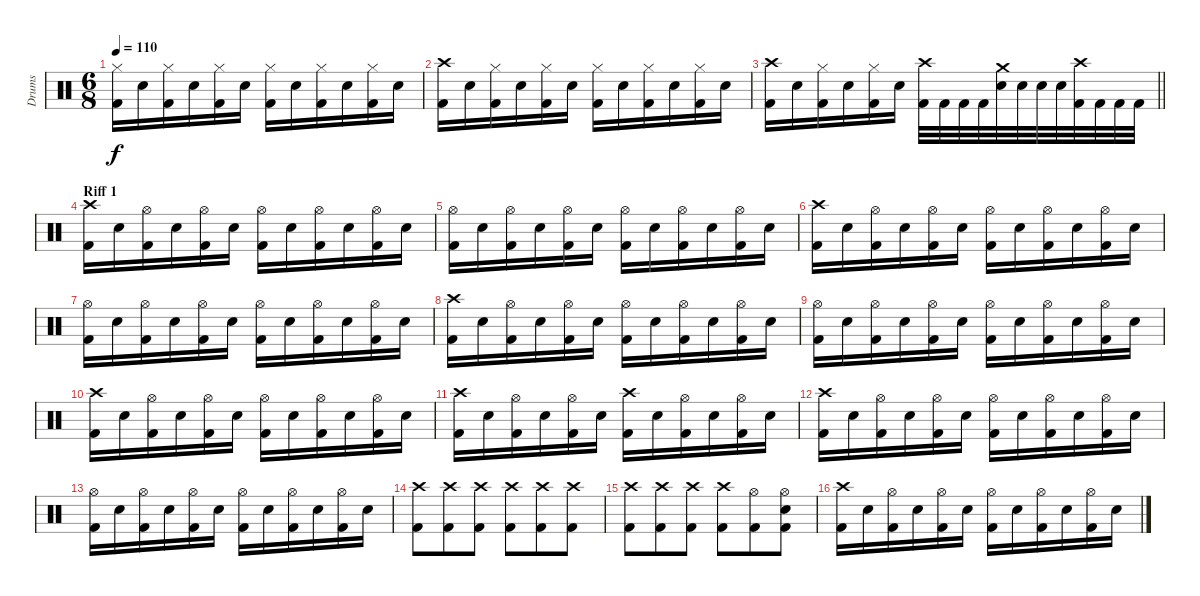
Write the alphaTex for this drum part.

\track ("Drums" "Drums") {instrument percussion}
\staff {score}
\articulation defaults
\ts (6 8)
\tempo 110
\clef neutral
\ks c
("Hi-Hat (closed)" "Kick (hit) 2").16{dy f} "Electric Snare (hit)".16 ("Hi-Hat (closed)" "Kick (hit) 2").16 "Electric Snare (hit)".16 ("Hi-Hat (closed)" "Kick (hit) 2").16 "Electric Snare (hit)".16 ("Hi-Hat (closed)" "Kick (hit) 2").16 "Electric Snare (hit)".16 ("Hi-Hat (closed)" "Kick (hit) 2").16 "Electric Snare (hit)".16 ("Hi-Hat (closed)" "Kick (hit) 2").16 "Electric Snare (hit)".16 |
("Crash high (hit)" "Kick (hit) 2").16 "Electric Snare (hit)".16 ("Hi-Hat (closed)" "Kick (hit) 2").16 "Electric Snare (hit)".16 ("Hi-Hat (closed)" "Kick (hit) 2").16 "Electric Snare (hit)".16 ("Hi-Hat (closed)" "Kick (hit) 2").16 "Electric Snare (hit)".16 ("Hi-Hat (closed)" "Kick (hit) 2").16 "Electric Snare (hit)".16 ("Hi-Hat (closed)" "Kick (hit) 2").16 "Electric Snare (hit)".16 |
\barLineRight lightlight
("Crash high (hit)" "Kick (hit) 2").16 "Electric Snare (hit)".16 ("Hi-Hat (closed)" "Kick (hit) 2").16 "Electric Snare (hit)".16 ("Hi-Hat (closed)" "Kick (hit) 2").16 "Electric Snare (hit)".16 ("Crash high (hit)" "Kick (hit) 2").32 "Kick (hit) 2".32 "Kick (hit) 2".32 "Kick (hit) 2".32 ("Crash medium (hit)" "Electric Snare (hit)").32 "Electric Snare (hit)".32 "Electric Snare (hit)".32 "Electric Snare (hit)".32 ("Crash high (hit)" "Kick (hit) 2").32 "Kick (hit) 2".32 "Kick (hit) 2".32 "Kick (hit) 2".32 |
\section ("" "Riff 1")
("Crash high (hit)" "Kick (hit) 2").16 "Electric Snare (hit)".16 ("Hi-Hat (open)" "Kick (hit) 2").16 "Electric Snare (hit)".16 ("Hi-Hat (open)" "Kick (hit) 2").16 "Electric Snare (hit)".16 ("Hi-Hat (open)" "Kick (hit) 2").16 "Electric Snare (hit)".16 ("Hi-Hat (open)" "Kick (hit) 2").16 "Electric Snare (hit)".16 ("Hi-Hat (open)" "Kick (hit) 2").16 "Electric Snare (hit)".16 |
("Hi-Hat (open)" "Kick (hit) 2").16 "Electric Snare (hit)".16 ("Hi-Hat (open)" "Kick (hit) 2").16 "Electric Snare (hit)".16 ("Hi-Hat (open)" "Kick (hit) 2").16 "Electric Snare (hit)".16 ("Hi-Hat (open)" "Kick (hit) 2").16 "Electric Snare (hit)".16 ("Hi-Hat (open)" "Kick (hit) 2").16 "Electric Snare (hit)".16 ("Hi-Hat (open)" "Kick (hit) 2").16 "Electric Snare (hit)".16 |
("Crash high (hit)" "Kick (hit) 2").16 "Electric Snare (hit)".16 ("Hi-Hat (open)" "Kick (hit) 2").16 "Electric Snare (hit)".16 ("Hi-Hat (open)" "Kick (hit) 2").16 "Electric Snare (hit)".16 ("Hi-Hat (open)" "Kick (hit) 2").16 "Electric Snare (hit)".16 ("Hi-Hat (open)" "Kick (hit) 2").16 "Electric Snare (hit)".16 ("Hi-Hat (open)" "Kick (hit) 2").16 "Electric Snare (hit)".16 |
("Hi-Hat (open)" "Kick (hit) 2").16 "Electric Snare (hit)".16 ("Hi-Hat (open)" "Kick (hit) 2").16 "Electric Snare (hit)".16 ("Hi-Hat (open)" "Kick (hit) 2").16 "Electric Snare (hit)".16 ("Hi-Hat (open)" "Kick (hit) 2").16 "Electric Snare (hit)".16 ("Hi-Hat (open)" "Kick (hit) 2").16 "Electric Snare (hit)".16 ("Hi-Hat (open)" "Kick (hit) 2").16 "Electric Snare (hit)".16 |
("Crash high (hit)" "Kick (hit) 2").16 "Electric Snare (hit)".16 ("Hi-Hat (open)" "Kick (hit) 2").16 "Electric Snare (hit)".16 ("Hi-Hat (open)" "Kick (hit) 2").16 "Electric Snare (hit)".16 ("Hi-Hat (open)" "Kick (hit) 2").16 "Electric Snare (hit)".16 ("Hi-Hat (open)" "Kick (hit) 2").16 "Electric Snare (hit)".16 ("Hi-Hat (open)" "Kick (hit) 2").16 "Electric Snare (hit)".16 |
("Hi-Hat (open)" "Kick (hit) 2").16 "Electric Snare (hit)".16 ("Hi-Hat (open)" "Kick (hit) 2").16 "Electric Snare (hit)".16 ("Hi-Hat (open)" "Kick (hit) 2").16 "Electric Snare (hit)".16 ("Hi-Hat (open)" "Kick (hit) 2").16 "Electric Snare (hit)".16 ("Hi-Hat (open)" "Kick (hit) 2").16 "Electric Snare (hit)".16 ("Hi-Hat (open)" "Kick (hit) 2").16 "Electric Snare (hit)".16 |
("Crash high (hit)" "Kick (hit) 2").16 "Electric Snare (hit)".16 ("Hi-Hat (open)" "Kick (hit) 2").16 "Electric Snare (hit)".16 ("Hi-Hat (open)" "Kick (hit) 2").16 "Electric Snare (hit)".16 ("Hi-Hat (open)" "Kick (hit) 2").16 "Electric Snare (hit)".16 ("Hi-Hat (open)" "Kick (hit) 2").16 "Electric Snare (hit)".16 ("Hi-Hat (open)" "Kick (hit) 2").16 "Electric Snare (hit)".16 |
("Crash high (hit)" "Kick (hit) 2").16 "Electric Snare (hit)".16 ("Hi-Hat (open)" "Kick (hit) 2").16 "Electric Snare (hit)".16 ("Hi-Hat (open)" "Kick (hit) 2").16 "Electric Snare (hit)".16 ("Crash high (hit)" "Kick (hit) 2").16 "Electric Snare (hit)".16 ("Hi-Hat (open)" "Kick (hit) 2").16 "Electric Snare (hit)".16 ("Hi-Hat (open)" "Kick (hit) 2").16 "Electric Snare (hit)".16 |
("Crash high (hit)" "Kick (hit) 2").16 "Electric Snare (hit)".16 ("Hi-Hat (open)" "Kick (hit) 2").16 "Electric Snare (hit)".16 ("Hi-Hat (open)" "Kick (hit) 2").16 "Electric Snare (hit)".16 ("Hi-Hat (open)" "Kick (hit) 2").16 "Electric Snare (hit)".16 ("Hi-Hat (open)" "Kick (hit) 2").16 "Electric Snare (hit)".16 ("Hi-Hat (open)" "Kick (hit) 2").16 "Electric Snare (hit)".16 |
("Hi-Hat (open)" "Kick (hit) 2").16 "Electric Snare (hit)".16 ("Hi-Hat (open)" "Kick (hit) 2").16 "Electric Snare (hit)".16 ("Hi-Hat (open)" "Kick (hit) 2").16 "Electric Snare (hit)".16 ("Hi-Hat (open)" "Kick (hit) 2").16 "Electric Snare (hit)".16 ("Hi-Hat (open)" "Kick (hit) 2").16 "Electric Snare (hit)".16 ("Hi-Hat (open)" "Kick (hit) 2").16 "Electric Snare (hit)".16 |
("Crash high (hit)" "Kick (hit) 2").8 ("Crash high (hit)" "Kick (hit) 2").8 ("Crash high (hit)" "Kick (hit) 2").8 ("Crash high (hit)" "Kick (hit) 2").8 ("Crash high (hit)" "Kick (hit) 2").8 ("Crash high (hit)" "Kick (hit) 2").8 |
("Crash high (hit)" "Kick (hit) 2").8 ("Crash high (hit)" "Kick (hit) 2").8 ("Crash high (hit)" "Kick (hit) 2").8 ("Crash high (hit)" "Kick (hit) 2").8 ("Hi-Hat (open)" "Kick (hit) 2").8 ("Hi-Hat (open)" "Electric Snare (hit)" "Kick (hit) 2").8 |
("Crash high (hit)" "Kick (hit) 2").16 "Electric Snare (hit)".16 ("Hi-Hat (open)" "Kick (hit) 2").16 "Electric Snare (hit)".16 ("Hi-Hat (open)" "Kick (hit) 2").16 "Electric Snare (hit)".16 ("Hi-Hat (open)" "Kick (hit) 2").16 "Electric Snare (hit)".16 ("Hi-Hat (open)" "Kick (hit) 2").16 "Electric Snare (hit)".16 ("Hi-Hat (open)" "Kick (hit) 2").16 "Electric Snare (hit)".16
